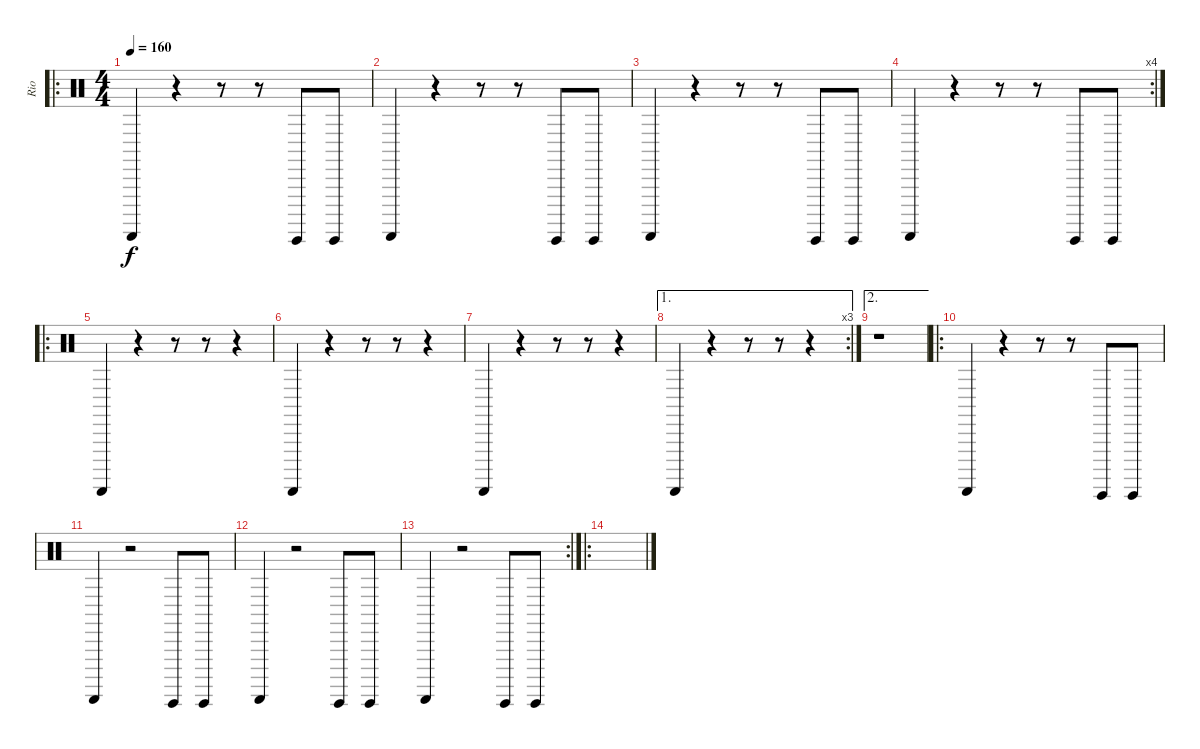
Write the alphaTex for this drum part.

\track ("Rio" "Rio") {instrument percussion}
\staff {score}
\articulation defaults
\ro
\ts (4 4)
\tempo 160
\clef neutral
\ks c "Guiro (scrap-return)".4{dy f}
r.4 r.8 r.8 "Guiro (hit)".8 "Guiro (hit)".8 |
"Guiro (scrap-return)".4 r.4 r.8 r.8 "Guiro (hit)".8 "Guiro (hit)".8 |
"Guiro (scrap-return)".4 r.4 r.8 r.8 "Guiro (hit)".8 "Guiro (hit)".8 |
\rc 4 "Guiro (scrap-return)".4
r.4 r.8 r.8 "Guiro (hit)".8 "Guiro (hit)".8 |
\ro "Guiro (scrap-return)".4
r.4 r.8 r.8 r.4 |
"Guiro (scrap-return)".4 r.4 r.8 r.8 r.4 |
"Guiro (scrap-return)".4 r.4 r.8 r.8 r.4 |
\ae 1
\rc 3 "Guiro (scrap-return)".4
r.4 r.8 r.8 r.4 |
\ae 2
r.1 |
\ro "Guiro (scrap-return)".4
r.4 r.8 r.8 "Guiro (hit)".8 "Guiro (hit)".8 |
"Guiro (scrap-return)".4 r.2 "Guiro (hit)".8 "Guiro (hit)".8 |
"Guiro (scrap-return)".4 r.2 "Guiro (hit)".8 "Guiro (hit)".8 |
\rc 2 "Guiro (scrap-return)".4
r.2 "Guiro (hit)".8 "Guiro (hit)".8 |
\ro
